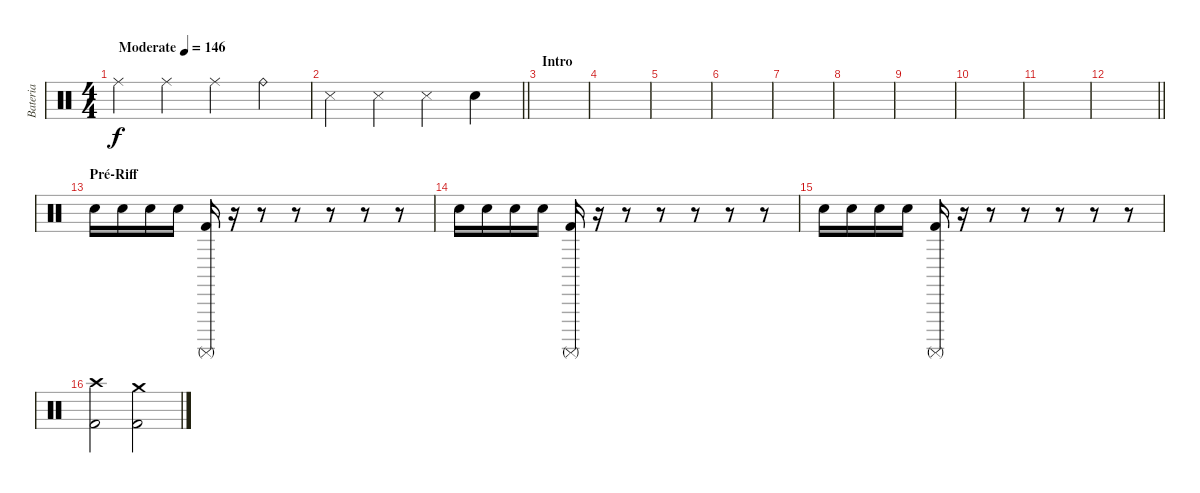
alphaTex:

\track ("Bateria" "Bateria") {instrument percussion}
\staff {score}
\articulation defaults
\ts (4 4)
\tempo (146 "Moderate")
\clef neutral
\ks c "Ride (middle)".4{dy f} "Ride (middle)".4 "Ride (middle)".4 "Ride (bell)".4
|
\barLineRight lightlight "Metronome (hit)".4 "Metronome (hit)".4 "Metronome (hit)".4 "Metronome (bell)".4
|
\section ("" "Intro")
|
|
|
|
|
|
|
|
|
\barLineRight lightlight
|
\section ("" "Pré-Riff")
"Electric Snare (hit)".16 "Electric Snare (hit)".16 "Electric Snare (hit)".16 "Electric Snare (hit)".16 ("Kick (hit) 2" "Surdo (mute)").16 r.16 r.8 r.8 r.8 r.8 r.8 |
"Electric Snare (hit)".16 "Electric Snare (hit)".16 "Electric Snare (hit)".16 "Electric Snare (hit)".16 ("Kick (hit) 2" "Surdo (mute)").16 r.16 r.8 r.8 r.8 r.8 r.8 |
"Electric Snare (hit)".16 "Electric Snare (hit)".16 "Electric Snare (hit)".16 "Electric Snare (hit)".16 ("Kick (hit) 2" "Surdo (mute)").16 r.16 r.8 r.8 r.8 r.8 r.8 |
("Kick (hit) 2" "Crash high (hit)").2 ("Kick (hit) 2" "Crash medium (hit)").2
